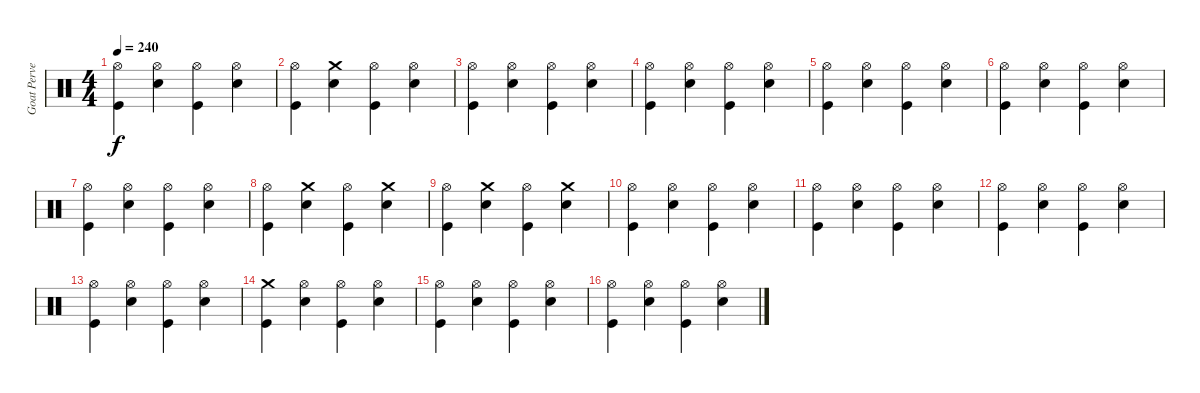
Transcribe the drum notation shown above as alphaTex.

\track ("Goat Pervertor" "Goat Perve") {instrument percussion}
\staff {score}
\articulation defaults
\ts (4 4)
\tempo 240
\clef neutral
\ks c
("Kick (hit)" "Hi-Hat (open)").4{dy f} ("Snare (hit) 2" "Hi-Hat (open)").4 ("Kick (hit)" "Hi-Hat (open)").4 ("Snare (hit) 2" "Hi-Hat (open)").4 |
("Kick (hit)" "Hi-Hat (open)").4 ("Snare (hit) 2" "Crash medium (hit)").4 ("Kick (hit)" "Hi-Hat (open)").4 ("Snare (hit) 2" "Hi-Hat (open)").4 |
("Kick (hit)" "Hi-Hat (open)").4 ("Snare (hit) 2" "Hi-Hat (open)").4 ("Kick (hit)" "Hi-Hat (open)").4 ("Snare (hit) 2" "Hi-Hat (open)").4 |
("Kick (hit)" "Hi-Hat (open)").4 ("Snare (hit) 2" "Hi-Hat (open)").4 ("Kick (hit)" "Hi-Hat (open)").4 ("Snare (hit) 2" "Hi-Hat (open)").4 |
("Kick (hit)" "Hi-Hat (open)").4 ("Snare (hit) 2" "Hi-Hat (open)").4 ("Kick (hit)" "Hi-Hat (open)").4 ("Snare (hit) 2" "Hi-Hat (open)").4 |
("Kick (hit)" "Hi-Hat (open)").4 ("Snare (hit) 2" "Hi-Hat (open)").4 ("Kick (hit)" "Hi-Hat (open)").4 ("Snare (hit) 2" "Hi-Hat (open)").4 |
("Kick (hit)" "Hi-Hat (open)").4 ("Snare (hit) 2" "Hi-Hat (open)").4 ("Kick (hit)" "Hi-Hat (open)").4 ("Snare (hit) 2" "Hi-Hat (open)").4 |
("Kick (hit)" "Hi-Hat (open)").4 ("Snare (hit) 2" "Crash medium (hit)").4 ("Kick (hit)" "Hi-Hat (open)").4 ("Snare (hit) 2" "Crash medium (hit)").4 |
("Kick (hit)" "Hi-Hat (open)").4 ("Snare (hit) 2" "Crash medium (hit)").4 ("Kick (hit)" "Hi-Hat (open)").4 ("Snare (hit) 2" "Crash medium (hit)").4 |
("Kick (hit)" "Hi-Hat (open)").4 ("Snare (hit) 2" "Hi-Hat (open)").4 ("Kick (hit)" "Hi-Hat (open)").4 ("Snare (hit) 2" "Hi-Hat (open)").4 |
("Kick (hit)" "Hi-Hat (open)").4 ("Snare (hit) 2" "Hi-Hat (open)").4 ("Kick (hit)" "Hi-Hat (open)").4 ("Snare (hit) 2" "Hi-Hat (open)").4 |
("Kick (hit)" "Hi-Hat (open)").4 ("Snare (hit) 2" "Hi-Hat (open)").4 ("Kick (hit)" "Hi-Hat (open)").4 ("Snare (hit) 2" "Hi-Hat (open)").4 |
("Kick (hit)" "Hi-Hat (open)").4 ("Snare (hit) 2" "Hi-Hat (open)").4 ("Kick (hit)" "Hi-Hat (open)").4 ("Snare (hit) 2" "Hi-Hat (open)").4 |
("Kick (hit)" "Crash medium (hit)").4 ("Snare (hit) 2" "Hi-Hat (open)").4 ("Kick (hit)" "Hi-Hat (open)").4 ("Snare (hit) 2" "Hi-Hat (open)").4 |
("Kick (hit)" "Hi-Hat (open)").4 ("Snare (hit) 2" "Hi-Hat (open)").4 ("Kick (hit)" "Hi-Hat (open)").4 ("Snare (hit) 2" "Hi-Hat (open)").4 |
("Kick (hit)" "Hi-Hat (open)").4 ("Snare (hit) 2" "Hi-Hat (open)").4 ("Kick (hit)" "Hi-Hat (open)").4 ("Snare (hit) 2" "Hi-Hat (open)").4
